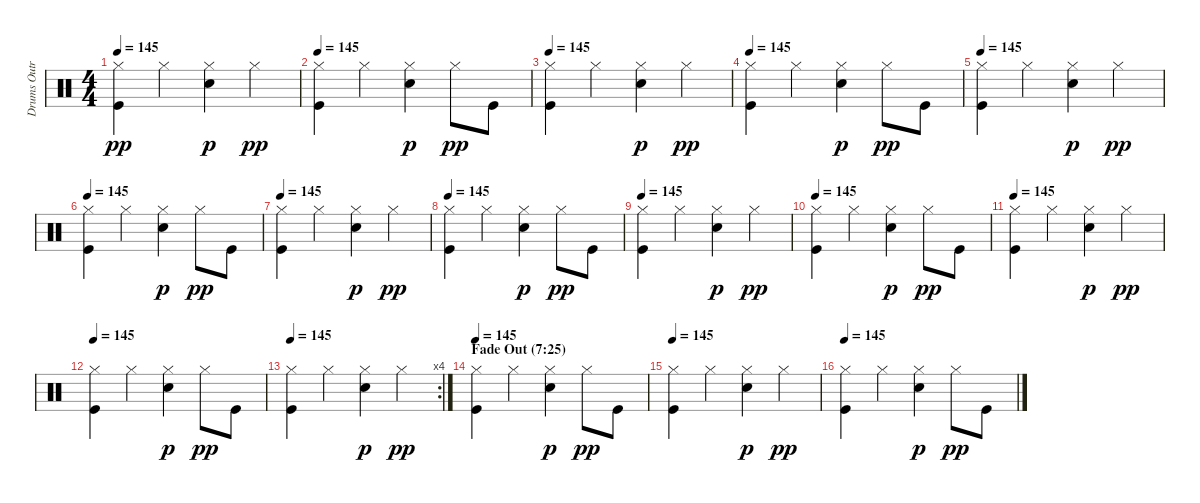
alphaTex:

\track ("Drums Outro" "Drums Outr") {instrument percussion}
\staff {score}
\articulation defaults
\ts (4 4)
\tempo 145
\clef neutral
\ks c
("Hi-Hat (closed)" "Kick (hit)").4{dy pp} "Hi-Hat (closed)".4 ("Hi-Hat (closed)" "Snare (hit) 2").4{dy p} "Hi-Hat (closed)".4{dy pp} |
\tempo 145
("Hi-Hat (closed)" "Kick (hit)").4 "Hi-Hat (closed)".4 ("Hi-Hat (closed)" "Snare (hit) 2").4{dy p} "Hi-Hat (closed)".8{dy pp} "Kick (hit)".8 |
\tempo 145
("Hi-Hat (closed)" "Kick (hit)").4 "Hi-Hat (closed)".4 ("Hi-Hat (closed)" "Snare (hit) 2").4{dy p} "Hi-Hat (closed)".4{dy pp} |
\tempo 145
("Hi-Hat (closed)" "Kick (hit)").4 "Hi-Hat (closed)".4 ("Hi-Hat (closed)" "Snare (hit) 2").4{dy p} "Hi-Hat (closed)".8{dy pp} "Kick (hit)".8 |
\tempo 145
("Hi-Hat (closed)" "Kick (hit)").4 "Hi-Hat (closed)".4 ("Hi-Hat (closed)" "Snare (hit) 2").4{dy p} "Hi-Hat (closed)".4{dy pp} |
\tempo 145
("Hi-Hat (closed)" "Kick (hit)").4 "Hi-Hat (closed)".4 ("Hi-Hat (closed)" "Snare (hit) 2").4{dy p} "Hi-Hat (closed)".8{dy pp} "Kick (hit)".8 |
\tempo 145
("Hi-Hat (closed)" "Kick (hit)").4 "Hi-Hat (closed)".4 ("Hi-Hat (closed)" "Snare (hit) 2").4{dy p} "Hi-Hat (closed)".4{dy pp} |
\tempo 145
("Hi-Hat (closed)" "Kick (hit)").4 "Hi-Hat (closed)".4 ("Hi-Hat (closed)" "Snare (hit) 2").4{dy p} "Hi-Hat (closed)".8{dy pp} "Kick (hit)".8 |
\tempo 145
("Hi-Hat (closed)" "Kick (hit)").4 "Hi-Hat (closed)".4 ("Hi-Hat (closed)" "Snare (hit) 2").4{dy p} "Hi-Hat (closed)".4{dy pp} |
\tempo 145
("Hi-Hat (closed)" "Kick (hit)").4 "Hi-Hat (closed)".4 ("Hi-Hat (closed)" "Snare (hit) 2").4{dy p} "Hi-Hat (closed)".8{dy pp} "Kick (hit)".8 |
\tempo 145
("Hi-Hat (closed)" "Kick (hit)").4 "Hi-Hat (closed)".4 ("Hi-Hat (closed)" "Snare (hit) 2").4{dy p} "Hi-Hat (closed)".4{dy pp} |
\tempo 145
("Hi-Hat (closed)" "Kick (hit)").4 "Hi-Hat (closed)".4 ("Hi-Hat (closed)" "Snare (hit) 2").4{dy p} "Hi-Hat (closed)".8{dy pp} "Kick (hit)".8 |
\rc 4
\tempo 145
("Hi-Hat (closed)" "Kick (hit)").4 "Hi-Hat (closed)".4 ("Hi-Hat (closed)" "Snare (hit) 2").4{dy p} "Hi-Hat (closed)".4{dy pp} |
\section ("" "Fade Out (7:25)")
\tempo 145
("Hi-Hat (closed)" "Kick (hit)").4 "Hi-Hat (closed)".4 ("Hi-Hat (closed)" "Snare (hit) 2").4{dy p} "Hi-Hat (closed)".8{dy pp} "Kick (hit)".8 |
\tempo 145
("Hi-Hat (closed)" "Kick (hit)").4 "Hi-Hat (closed)".4 ("Hi-Hat (closed)" "Snare (hit) 2").4{dy p} "Hi-Hat (closed)".4{dy pp} |
\tempo 145
("Hi-Hat (closed)" "Kick (hit)").4 "Hi-Hat (closed)".4 ("Hi-Hat (closed)" "Snare (hit) 2").4{dy p} "Hi-Hat (closed)".8{dy pp} "Kick (hit)".8
